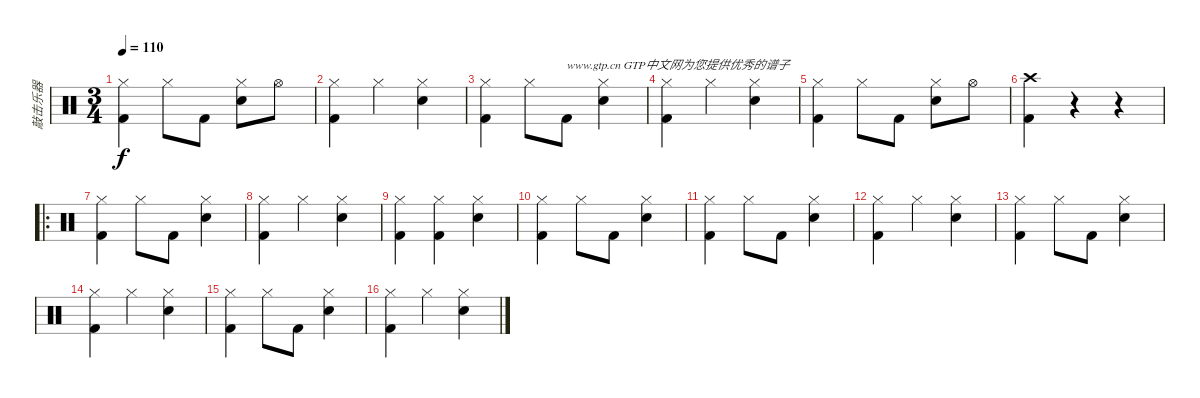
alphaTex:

\track ("敲击乐器" "敲击乐器") {instrument percussion}
\staff {score}
\articulation defaults
\ts (3 4)
\tempo 110
\clef neutral
\ks c
("Hi-Hat (closed)" "Kick (hit) 2").4{dy f} "Hi-Hat (closed)".8 "Kick (hit) 2".8 ("Hi-Hat (closed)" "Electric Snare (hit)").8 "Hi-Hat (open)".8 |
("Hi-Hat (closed)" "Kick (hit) 2").4 "Hi-Hat (closed)".4 ("Hi-Hat (closed)" "Electric Snare (hit)").4 |
("Hi-Hat (closed)" "Kick (hit) 2").4 "Hi-Hat (closed)".8 "Kick (hit) 2".8{txt "www.gtp.cn GTP中文网为您提供优秀的谱子"} ("Hi-Hat (closed)" "Electric Snare (hit)").4 |
("Hi-Hat (closed)" "Kick (hit) 2").4 "Hi-Hat (closed)".4 ("Hi-Hat (closed)" "Electric Snare (hit)").4 |
("Hi-Hat (closed)" "Kick (hit) 2").4 "Hi-Hat (closed)".8 "Kick (hit) 2".8 ("Hi-Hat (closed)" "Electric Snare (hit)").8 "Hi-Hat (open)".8 |
("Crash high (hit)" "Kick (hit) 2").4 r.4 r.4 |
\ro
("Hi-Hat (closed)" "Kick (hit) 2").4 "Hi-Hat (closed)".8 "Kick (hit) 2".8 ("Hi-Hat (closed)" "Electric Snare (hit)").4 |
("Hi-Hat (closed)" "Kick (hit) 2").4 "Hi-Hat (closed)".4 ("Hi-Hat (closed)" "Electric Snare (hit)").4 |
("Hi-Hat (closed)" "Kick (hit) 2").4 ("Hi-Hat (closed)" "Kick (hit) 2").4 ("Hi-Hat (closed)" "Electric Snare (hit)").4 |
("Hi-Hat (closed)" "Kick (hit) 2").4 "Hi-Hat (closed)".8 "Kick (hit) 2".8 ("Hi-Hat (closed)" "Electric Snare (hit)").4 |
("Hi-Hat (closed)" "Kick (hit) 2").4 "Hi-Hat (closed)".8 "Kick (hit) 2".8 ("Hi-Hat (closed)" "Electric Snare (hit)").4 |
("Hi-Hat (closed)" "Kick (hit) 2").4 "Hi-Hat (closed)".4 ("Hi-Hat (closed)" "Electric Snare (hit)").4 |
("Hi-Hat (closed)" "Kick (hit) 2").4 "Hi-Hat (closed)".8 "Kick (hit) 2".8 ("Hi-Hat (closed)" "Electric Snare (hit)").4 |
("Hi-Hat (closed)" "Kick (hit) 2").4 "Hi-Hat (closed)".4 ("Hi-Hat (closed)" "Electric Snare (hit)").4 |
("Hi-Hat (closed)" "Kick (hit) 2").4 "Hi-Hat (closed)".8 "Kick (hit) 2".8 ("Hi-Hat (closed)" "Electric Snare (hit)").4 |
("Hi-Hat (closed)" "Kick (hit) 2").4 "Hi-Hat (closed)".4 ("Hi-Hat (closed)" "Electric Snare (hit)").4
